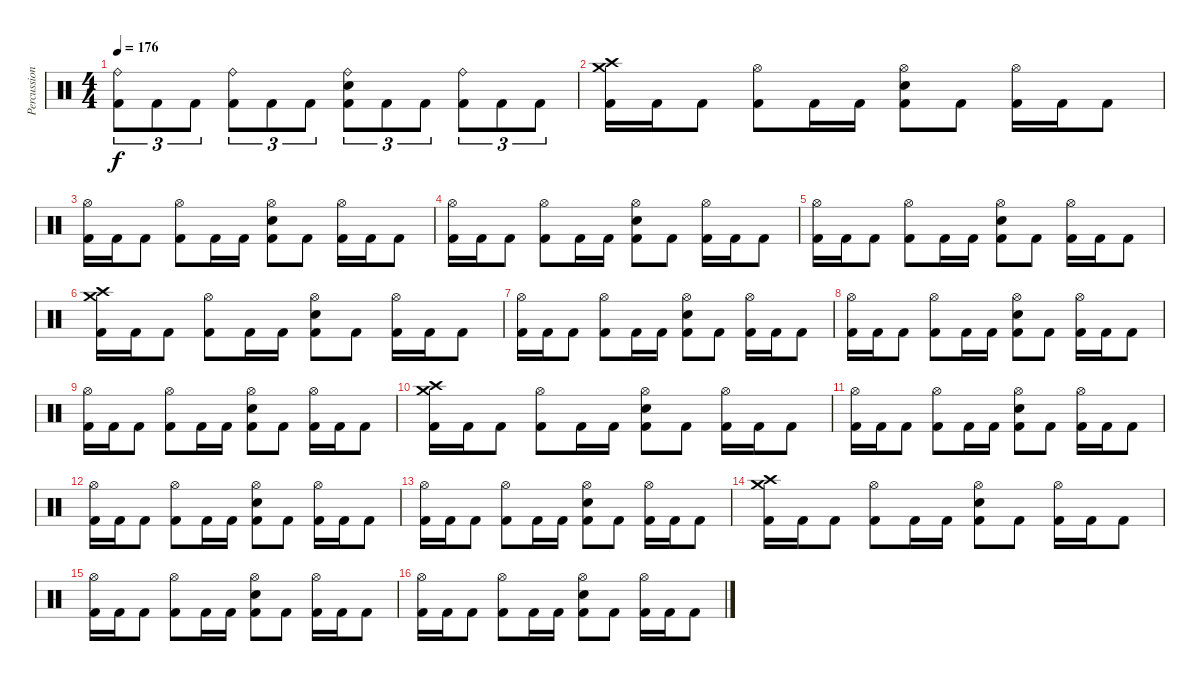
\track ("Percussion" "Percussion") {instrument percussion}
\staff {score}
\articulation defaults
\ts (4 4)
\tempo 176
\clef neutral
\ks c
("Ride (bell)" "Kick (hit) 2").8{tu (3 2) dy f} "Kick (hit) 2".8{tu (3 2)} "Kick (hit) 2".8{tu (3 2)} ("Ride (bell)" "Kick (hit) 2").8{tu (3 2)} "Kick (hit) 2".8{tu (3 2)} "Kick (hit) 2".8{tu (3 2)} ("Ride (bell)" "Snare (hit) 2" "Kick (hit) 2").8{tu (3 2)} "Kick (hit) 2".8{tu (3 2)} "Kick (hit) 2".8{tu (3 2)} ("Ride (bell)" "Kick (hit) 2").8{tu (3 2)} "Kick (hit) 2".8{tu (3 2)} "Kick (hit) 2".8{tu (3 2)} |
("Crash high (hit)" "Crash medium (hit)" "Kick (hit) 2").16 "Kick (hit) 2".16 "Kick (hit) 2".8 ("Hi-Hat (open)" "Kick (hit) 2").8 "Kick (hit) 2".16 "Kick (hit) 2".16 ("Hi-Hat (open)" "Snare (hit) 2" "Kick (hit) 2").8 "Kick (hit) 2".8 ("Hi-Hat (open)" "Kick (hit) 2").16 "Kick (hit) 2".16 "Kick (hit) 2".8 |
("Hi-Hat (open)" "Kick (hit) 2").16 "Kick (hit) 2".16 "Kick (hit) 2".8 ("Hi-Hat (open)" "Kick (hit) 2").8 "Kick (hit) 2".16 "Kick (hit) 2".16 ("Hi-Hat (open)" "Snare (hit) 2" "Kick (hit) 2").8 "Kick (hit) 2".8 ("Hi-Hat (open)" "Kick (hit) 2").16 "Kick (hit) 2".16 "Kick (hit) 2".8 |
("Hi-Hat (open)" "Kick (hit) 2").16 "Kick (hit) 2".16 "Kick (hit) 2".8 ("Hi-Hat (open)" "Kick (hit) 2").8 "Kick (hit) 2".16 "Kick (hit) 2".16 ("Hi-Hat (open)" "Snare (hit) 2" "Kick (hit) 2").8 "Kick (hit) 2".8 ("Hi-Hat (open)" "Kick (hit) 2").16 "Kick (hit) 2".16 "Kick (hit) 2".8 |
("Hi-Hat (open)" "Kick (hit) 2").16 "Kick (hit) 2".16 "Kick (hit) 2".8 ("Hi-Hat (open)" "Kick (hit) 2").8 "Kick (hit) 2".16 "Kick (hit) 2".16 ("Hi-Hat (open)" "Snare (hit) 2" "Kick (hit) 2").8 "Kick (hit) 2".8 ("Hi-Hat (open)" "Kick (hit) 2").16 "Kick (hit) 2".16 "Kick (hit) 2".8 |
("Crash high (hit)" "Crash medium (hit)" "Kick (hit) 2").16 "Kick (hit) 2".16 "Kick (hit) 2".8 ("Hi-Hat (open)" "Kick (hit) 2").8 "Kick (hit) 2".16 "Kick (hit) 2".16 ("Hi-Hat (open)" "Snare (hit) 2" "Kick (hit) 2").8 "Kick (hit) 2".8 ("Hi-Hat (open)" "Kick (hit) 2").16 "Kick (hit) 2".16 "Kick (hit) 2".8 |
("Hi-Hat (open)" "Kick (hit) 2").16 "Kick (hit) 2".16 "Kick (hit) 2".8 ("Hi-Hat (open)" "Kick (hit) 2").8 "Kick (hit) 2".16 "Kick (hit) 2".16 ("Hi-Hat (open)" "Snare (hit) 2" "Kick (hit) 2").8 "Kick (hit) 2".8 ("Hi-Hat (open)" "Kick (hit) 2").16 "Kick (hit) 2".16 "Kick (hit) 2".8 |
("Hi-Hat (open)" "Kick (hit) 2").16 "Kick (hit) 2".16 "Kick (hit) 2".8 ("Hi-Hat (open)" "Kick (hit) 2").8 "Kick (hit) 2".16 "Kick (hit) 2".16 ("Hi-Hat (open)" "Snare (hit) 2" "Kick (hit) 2").8 "Kick (hit) 2".8 ("Hi-Hat (open)" "Kick (hit) 2").16 "Kick (hit) 2".16 "Kick (hit) 2".8 |
("Hi-Hat (open)" "Kick (hit) 2").16 "Kick (hit) 2".16 "Kick (hit) 2".8 ("Hi-Hat (open)" "Kick (hit) 2").8 "Kick (hit) 2".16 "Kick (hit) 2".16 ("Hi-Hat (open)" "Snare (hit) 2" "Kick (hit) 2").8 "Kick (hit) 2".8 ("Hi-Hat (open)" "Kick (hit) 2").16 "Kick (hit) 2".16 "Kick (hit) 2".8 |
("Crash high (hit)" "Crash medium (hit)" "Kick (hit) 2").16 "Kick (hit) 2".16 "Kick (hit) 2".8 ("Hi-Hat (open)" "Kick (hit) 2").8 "Kick (hit) 2".16 "Kick (hit) 2".16 ("Hi-Hat (open)" "Snare (hit) 2" "Kick (hit) 2").8 "Kick (hit) 2".8 ("Hi-Hat (open)" "Kick (hit) 2").16 "Kick (hit) 2".16 "Kick (hit) 2".8 |
("Hi-Hat (open)" "Kick (hit) 2").16 "Kick (hit) 2".16 "Kick (hit) 2".8 ("Hi-Hat (open)" "Kick (hit) 2").8 "Kick (hit) 2".16 "Kick (hit) 2".16 ("Hi-Hat (open)" "Snare (hit) 2" "Kick (hit) 2").8 "Kick (hit) 2".8 ("Hi-Hat (open)" "Kick (hit) 2").16 "Kick (hit) 2".16 "Kick (hit) 2".8 |
("Hi-Hat (open)" "Kick (hit) 2").16 "Kick (hit) 2".16 "Kick (hit) 2".8 ("Hi-Hat (open)" "Kick (hit) 2").8 "Kick (hit) 2".16 "Kick (hit) 2".16 ("Hi-Hat (open)" "Snare (hit) 2" "Kick (hit) 2").8 "Kick (hit) 2".8 ("Hi-Hat (open)" "Kick (hit) 2").16 "Kick (hit) 2".16 "Kick (hit) 2".8 |
("Hi-Hat (open)" "Kick (hit) 2").16 "Kick (hit) 2".16 "Kick (hit) 2".8 ("Hi-Hat (open)" "Kick (hit) 2").8 "Kick (hit) 2".16 "Kick (hit) 2".16 ("Hi-Hat (open)" "Snare (hit) 2" "Kick (hit) 2").8 "Kick (hit) 2".8 ("Hi-Hat (open)" "Kick (hit) 2").16 "Kick (hit) 2".16 "Kick (hit) 2".8 |
("Crash high (hit)" "Crash medium (hit)" "Kick (hit) 2").16 "Kick (hit) 2".16 "Kick (hit) 2".8 ("Hi-Hat (open)" "Kick (hit) 2").8 "Kick (hit) 2".16 "Kick (hit) 2".16 ("Hi-Hat (open)" "Snare (hit) 2" "Kick (hit) 2").8 "Kick (hit) 2".8 ("Hi-Hat (open)" "Kick (hit) 2").16 "Kick (hit) 2".16 "Kick (hit) 2".8 |
("Hi-Hat (open)" "Kick (hit) 2").16 "Kick (hit) 2".16 "Kick (hit) 2".8 ("Hi-Hat (open)" "Kick (hit) 2").8 "Kick (hit) 2".16 "Kick (hit) 2".16 ("Hi-Hat (open)" "Snare (hit) 2" "Kick (hit) 2").8 "Kick (hit) 2".8 ("Hi-Hat (open)" "Kick (hit) 2").16 "Kick (hit) 2".16 "Kick (hit) 2".8 |
("Hi-Hat (open)" "Kick (hit) 2").16 "Kick (hit) 2".16 "Kick (hit) 2".8 ("Hi-Hat (open)" "Kick (hit) 2").8 "Kick (hit) 2".16 "Kick (hit) 2".16 ("Hi-Hat (open)" "Snare (hit) 2" "Kick (hit) 2").8 "Kick (hit) 2".8 ("Hi-Hat (open)" "Kick (hit) 2").16 "Kick (hit) 2".16 "Kick (hit) 2".8
